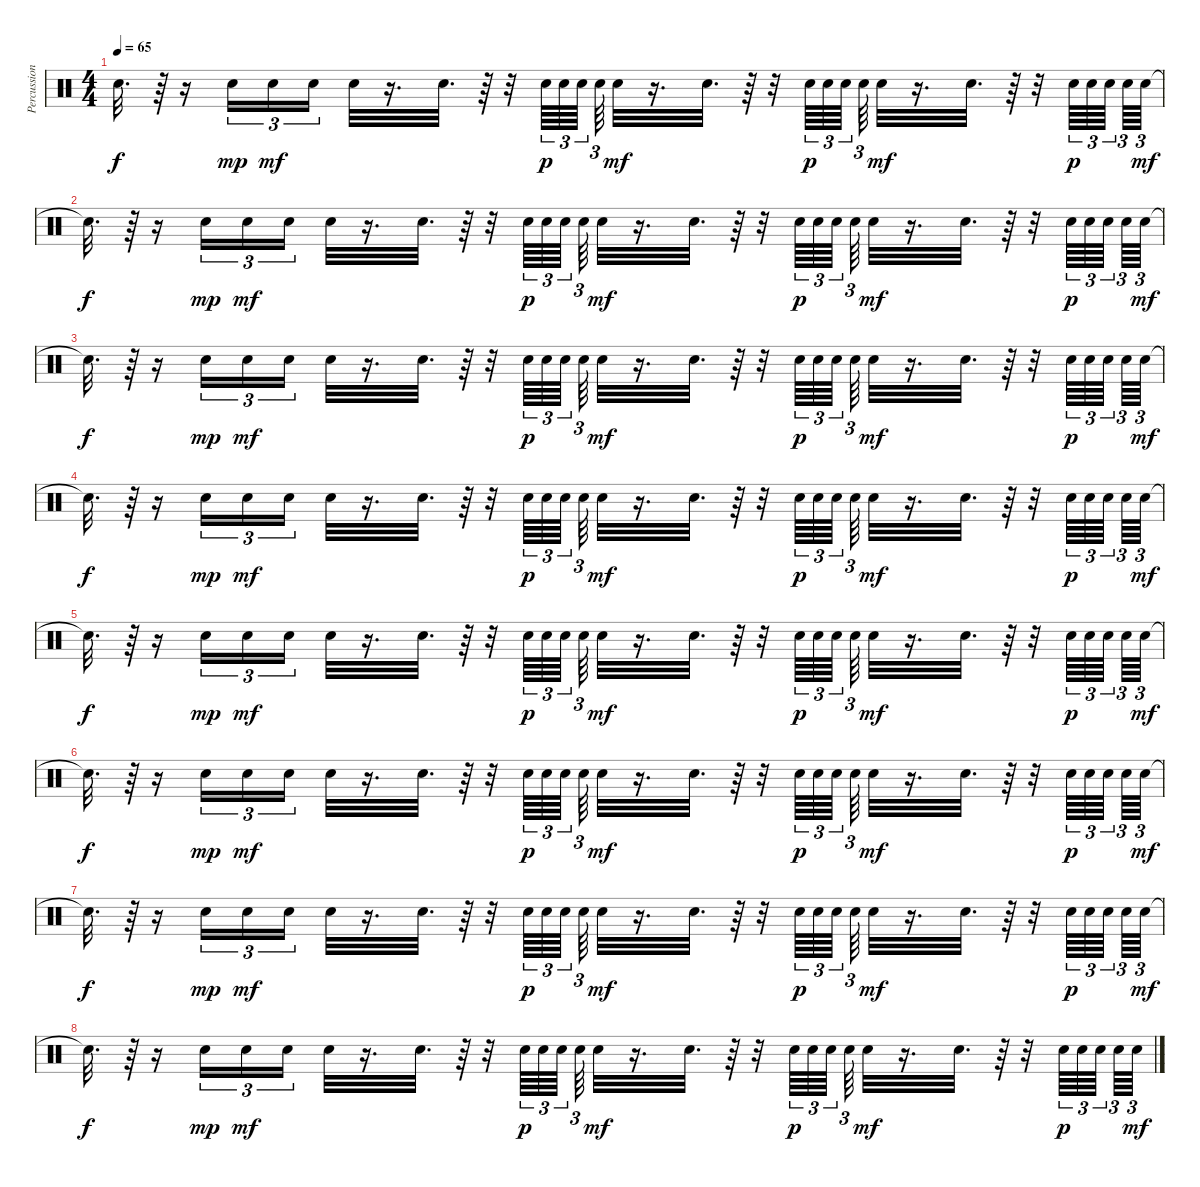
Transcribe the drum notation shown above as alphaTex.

\track ("Percussioni" "Percussion") {instrument percussion}
\staff {score}
\articulation defaults
\ts (4 4)
\tempo 65
\clef neutral
\ks c "Snare (hit)"{t}.32{d dy f}
r.64 r.16 "Snare (hit) 2".16{tu (3 2) dy mp} "Snare (hit) 2".16{tu (3 2) dy mf} "Snare (hit) 2".16{tu (3 2)} "Snare (hit) 2".32 r.16{d} "Snare (hit) 2".32{d} r.64 r.32 "Snare (hit) 2".64{tu (3 2) dy p} "Snare (hit) 2".64{tu (3 2)} "Snare (hit) 2".64{tu (3 2)} "Snare (hit) 2".64{tu (3 2)} "Snare (hit) 2".32{dy mf} r.16{d} "Snare (hit) 2".32{d} r.64 r.32 "Snare (hit) 2".64{tu (3 2) dy p} "Snare (hit) 2".64{tu (3 2)} "Snare (hit) 2".64{tu (3 2) beam splitsecondary} "Snare (hit) 2".64{tu (3 2)} "Snare (hit) 2".32{dy mf} r.16{d} "Snare (hit) 2".32{d} r.64 r.32 "Snare (hit) 2".64{tu (3 2) dy p} "Snare (hit) 2".64{tu (3 2)} "Snare (hit) 2".64{tu (3 2) beam splitsecondary} "Snare (hit) 2".64{tu (3 2)} "Snare (hit) 2".64{tu (3 2) dy mf} |
"Snare (hit)"{t}.32{d dy f} r.64 r.16 "Snare (hit) 2".16{tu (3 2) dy mp} "Snare (hit) 2".16{tu (3 2) dy mf} "Snare (hit) 2".16{tu (3 2)} "Snare (hit) 2".32 r.16{d} "Snare (hit) 2".32{d} r.64 r.32 "Snare (hit) 2".64{tu (3 2) dy p} "Snare (hit) 2".64{tu (3 2)} "Snare (hit) 2".64{tu (3 2)} "Snare (hit) 2".64{tu (3 2)} "Snare (hit) 2".32{dy mf} r.16{d} "Snare (hit) 2".32{d} r.64 r.32 "Snare (hit) 2".64{tu (3 2) dy p} "Snare (hit) 2".64{tu (3 2)} "Snare (hit) 2".64{tu (3 2) beam splitsecondary} "Snare (hit) 2".64{tu (3 2)} "Snare (hit) 2".32{dy mf} r.16{d} "Snare (hit) 2".32{d} r.64 r.32 "Snare (hit) 2".64{tu (3 2) dy p} "Snare (hit) 2".64{tu (3 2)} "Snare (hit) 2".64{tu (3 2) beam splitsecondary} "Snare (hit) 2".64{tu (3 2)} "Snare (hit) 2".64{tu (3 2) dy mf} |
"Snare (hit)"{t}.32{d dy f} r.64 r.16 "Snare (hit) 2".16{tu (3 2) dy mp} "Snare (hit) 2".16{tu (3 2) dy mf} "Snare (hit) 2".16{tu (3 2)} "Snare (hit) 2".32 r.16{d} "Snare (hit) 2".32{d} r.64 r.32 "Snare (hit) 2".64{tu (3 2) dy p} "Snare (hit) 2".64{tu (3 2)} "Snare (hit) 2".64{tu (3 2)} "Snare (hit) 2".64{tu (3 2)} "Snare (hit) 2".32{dy mf} r.16{d} "Snare (hit) 2".32{d} r.64 r.32 "Snare (hit) 2".64{tu (3 2) dy p} "Snare (hit) 2".64{tu (3 2)} "Snare (hit) 2".64{tu (3 2) beam splitsecondary} "Snare (hit) 2".64{tu (3 2)} "Snare (hit) 2".32{dy mf} r.16{d} "Snare (hit) 2".32{d} r.64 r.32 "Snare (hit) 2".64{tu (3 2) dy p} "Snare (hit) 2".64{tu (3 2)} "Snare (hit) 2".64{tu (3 2) beam splitsecondary} "Snare (hit) 2".64{tu (3 2)} "Snare (hit) 2".64{tu (3 2) dy mf} |
"Snare (hit)"{t}.32{d dy f} r.64 r.16 "Snare (hit) 2".16{tu (3 2) dy mp} "Snare (hit) 2".16{tu (3 2) dy mf} "Snare (hit) 2".16{tu (3 2)} "Snare (hit) 2".32 r.16{d} "Snare (hit) 2".32{d} r.64 r.32 "Snare (hit) 2".64{tu (3 2) dy p} "Snare (hit) 2".64{tu (3 2)} "Snare (hit) 2".64{tu (3 2)} "Snare (hit) 2".64{tu (3 2)} "Snare (hit) 2".32{dy mf} r.16{d} "Snare (hit) 2".32{d} r.64 r.32 "Snare (hit) 2".64{tu (3 2) dy p} "Snare (hit) 2".64{tu (3 2)} "Snare (hit) 2".64{tu (3 2) beam splitsecondary} "Snare (hit) 2".64{tu (3 2)} "Snare (hit) 2".32{dy mf} r.16{d} "Snare (hit) 2".32{d} r.64 r.32 "Snare (hit) 2".64{tu (3 2) dy p} "Snare (hit) 2".64{tu (3 2)} "Snare (hit) 2".64{tu (3 2) beam splitsecondary} "Snare (hit) 2".64{tu (3 2)} "Snare (hit) 2".64{tu (3 2) dy mf} |
"Snare (hit)"{t}.32{d dy f} r.64 r.16 "Snare (hit) 2".16{tu (3 2) dy mp} "Snare (hit) 2".16{tu (3 2) dy mf} "Snare (hit) 2".16{tu (3 2)} "Snare (hit) 2".32 r.16{d} "Snare (hit) 2".32{d} r.64 r.32 "Snare (hit) 2".64{tu (3 2) dy p} "Snare (hit) 2".64{tu (3 2)} "Snare (hit) 2".64{tu (3 2)} "Snare (hit) 2".64{tu (3 2)} "Snare (hit) 2".32{dy mf} r.16{d} "Snare (hit) 2".32{d} r.64 r.32 "Snare (hit) 2".64{tu (3 2) dy p} "Snare (hit) 2".64{tu (3 2)} "Snare (hit) 2".64{tu (3 2) beam splitsecondary} "Snare (hit) 2".64{tu (3 2)} "Snare (hit) 2".32{dy mf} r.16{d} "Snare (hit) 2".32{d} r.64 r.32 "Snare (hit) 2".64{tu (3 2) dy p} "Snare (hit) 2".64{tu (3 2)} "Snare (hit) 2".64{tu (3 2) beam splitsecondary} "Snare (hit) 2".64{tu (3 2)} "Snare (hit) 2".64{tu (3 2) dy mf} |
"Snare (hit)"{t}.32{d dy f} r.64 r.16 "Snare (hit) 2".16{tu (3 2) dy mp} "Snare (hit) 2".16{tu (3 2) dy mf} "Snare (hit) 2".16{tu (3 2)} "Snare (hit) 2".32 r.16{d} "Snare (hit) 2".32{d} r.64 r.32 "Snare (hit) 2".64{tu (3 2) dy p} "Snare (hit) 2".64{tu (3 2)} "Snare (hit) 2".64{tu (3 2)} "Snare (hit) 2".64{tu (3 2)} "Snare (hit) 2".32{dy mf} r.16{d} "Snare (hit) 2".32{d} r.64 r.32 "Snare (hit) 2".64{tu (3 2) dy p} "Snare (hit) 2".64{tu (3 2)} "Snare (hit) 2".64{tu (3 2) beam splitsecondary} "Snare (hit) 2".64{tu (3 2)} "Snare (hit) 2".32{dy mf} r.16{d} "Snare (hit) 2".32{d} r.64 r.32 "Snare (hit) 2".64{tu (3 2) dy p} "Snare (hit) 2".64{tu (3 2)} "Snare (hit) 2".64{tu (3 2) beam splitsecondary} "Snare (hit) 2".64{tu (3 2)} "Snare (hit) 2".64{tu (3 2) dy mf} |
"Snare (hit)"{t}.32{d dy f} r.64 r.16 "Snare (hit) 2".16{tu (3 2) dy mp} "Snare (hit) 2".16{tu (3 2) dy mf} "Snare (hit) 2".16{tu (3 2)} "Snare (hit) 2".32 r.16{d} "Snare (hit) 2".32{d} r.64 r.32 "Snare (hit) 2".64{tu (3 2) dy p} "Snare (hit) 2".64{tu (3 2)} "Snare (hit) 2".64{tu (3 2)} "Snare (hit) 2".64{tu (3 2)} "Snare (hit) 2".32{dy mf} r.16{d} "Snare (hit) 2".32{d} r.64 r.32 "Snare (hit) 2".64{tu (3 2) dy p} "Snare (hit) 2".64{tu (3 2)} "Snare (hit) 2".64{tu (3 2) beam splitsecondary} "Snare (hit) 2".64{tu (3 2)} "Snare (hit) 2".32{dy mf} r.16{d} "Snare (hit) 2".32{d} r.64 r.32 "Snare (hit) 2".64{tu (3 2) dy p} "Snare (hit) 2".64{tu (3 2)} "Snare (hit) 2".64{tu (3 2) beam splitsecondary} "Snare (hit) 2".64{tu (3 2)} "Snare (hit) 2".64{tu (3 2) dy mf} |
"Snare (hit)"{t}.32{d dy f} r.64 r.16 "Snare (hit) 2".16{tu (3 2) dy mp} "Snare (hit) 2".16{tu (3 2) dy mf} "Snare (hit) 2".16{tu (3 2)} "Snare (hit) 2".32 r.16{d} "Snare (hit) 2".32{d} r.64 r.32 "Snare (hit) 2".64{tu (3 2) dy p} "Snare (hit) 2".64{tu (3 2)} "Snare (hit) 2".64{tu (3 2)} "Snare (hit) 2".64{tu (3 2)} "Snare (hit) 2".32{dy mf} r.16{d} "Snare (hit) 2".32{d} r.64 r.32 "Snare (hit) 2".64{tu (3 2) dy p} "Snare (hit) 2".64{tu (3 2)} "Snare (hit) 2".64{tu (3 2) beam splitsecondary} "Snare (hit) 2".64{tu (3 2)} "Snare (hit) 2".32{dy mf} r.16{d} "Snare (hit) 2".32{d} r.64 r.32 "Snare (hit) 2".64{tu (3 2) dy p} "Snare (hit) 2".64{tu (3 2)} "Snare (hit) 2".64{tu (3 2) beam splitsecondary} "Snare (hit) 2".64{tu (3 2)} "Snare (hit) 2".64{tu (3 2) dy mf}
